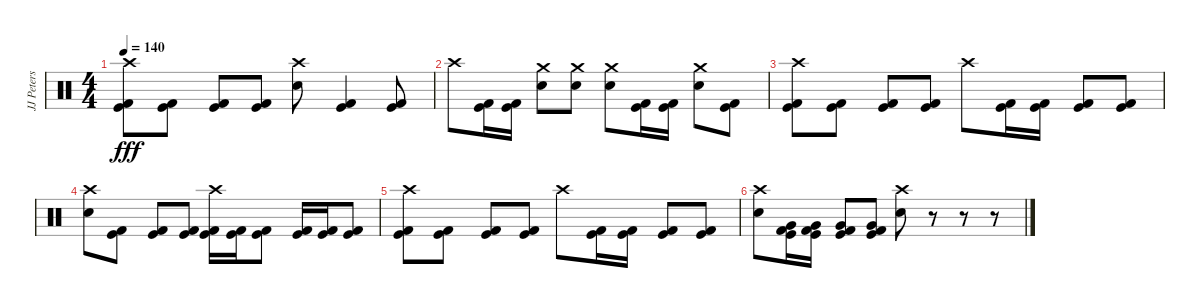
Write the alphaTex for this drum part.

\track ("JJ Peters" "JJ Peters") {instrument percussion}
\staff {score}
\articulation defaults
\ts (4 4)
\tempo 140
\clef neutral
\ks c
("Crash high (hit)" "Kick (hit)" "Kick (hit) 2").8{dy fff} ("Kick (hit)" "Kick (hit) 2").8 ("Kick (hit)" "Kick (hit) 2").8 ("Kick (hit)" "Kick (hit) 2").8 ("Crash high (hit)" "Electric Snare (hit)").8 ("Kick (hit)" "Kick (hit) 2").4 ("Kick (hit)" "Kick (hit) 2").8 |
"Crash high (hit)".8 ("Kick (hit)" "Kick (hit) 2").16 ("Kick (hit)" "Kick (hit) 2").16 ("Crash medium (hit)" "Electric Snare (hit)").8 ("Crash medium (hit)" "Electric Snare (hit)").8 ("Crash medium (hit)" "Electric Snare (hit)").8 ("Kick (hit)" "Kick (hit) 2").16 ("Kick (hit)" "Kick (hit) 2").16 ("Crash medium (hit)" "Electric Snare (hit)").8 ("Kick (hit)" "Kick (hit) 2").8 |
("Crash high (hit)" "Kick (hit)" "Kick (hit) 2").8 ("Kick (hit)" "Kick (hit) 2").8 ("Kick (hit)" "Kick (hit) 2").8 ("Kick (hit)" "Kick (hit) 2").8 "Crash high (hit)".8 ("Kick (hit)" "Kick (hit) 2").16 ("Kick (hit)" "Kick (hit) 2").16 ("Kick (hit)" "Kick (hit) 2").8 ("Kick (hit)" "Kick (hit) 2").8 |
("Crash high (hit)" "Electric Snare (hit)").8 ("Kick (hit)" "Kick (hit) 2").8 ("Kick (hit)" "Kick (hit) 2").8 ("Kick (hit)" "Kick (hit) 2").8 ("Crash high (hit)" "Kick (hit)" "Kick (hit) 2").16 ("Kick (hit)" "Kick (hit) 2").16 ("Kick (hit)" "Kick (hit) 2").8 ("Kick (hit)" "Kick (hit) 2").16 ("Kick (hit)" "Kick (hit) 2").16 ("Kick (hit)" "Kick (hit) 2").8 |
("Crash high (hit)" "Kick (hit)" "Kick (hit) 2").8 ("Kick (hit)" "Kick (hit) 2").8 ("Kick (hit)" "Kick (hit) 2").8 ("Kick (hit)" "Kick (hit) 2").8 "Crash high (hit)".8 ("Kick (hit)" "Kick (hit) 2").16 ("Kick (hit)" "Kick (hit) 2").16 ("Kick (hit)" "Kick (hit) 2").8 ("Kick (hit)" "Kick (hit) 2").8 |
("Crash high (hit)" "Electric Snare (hit)").8 ("Very Low Tom (hit)" "Kick (hit)" "Kick (hit) 2").16 ("Very Low Tom (hit)" "Kick (hit)" "Kick (hit) 2").16 ("Very Low Tom (hit)" "Kick (hit)" "Kick (hit) 2").8 ("Very Low Tom (hit)" "Kick (hit)" "Kick (hit) 2").8 ("Crash high (hit)" "Electric Snare (hit)").8 r.8 r.8 r.8
